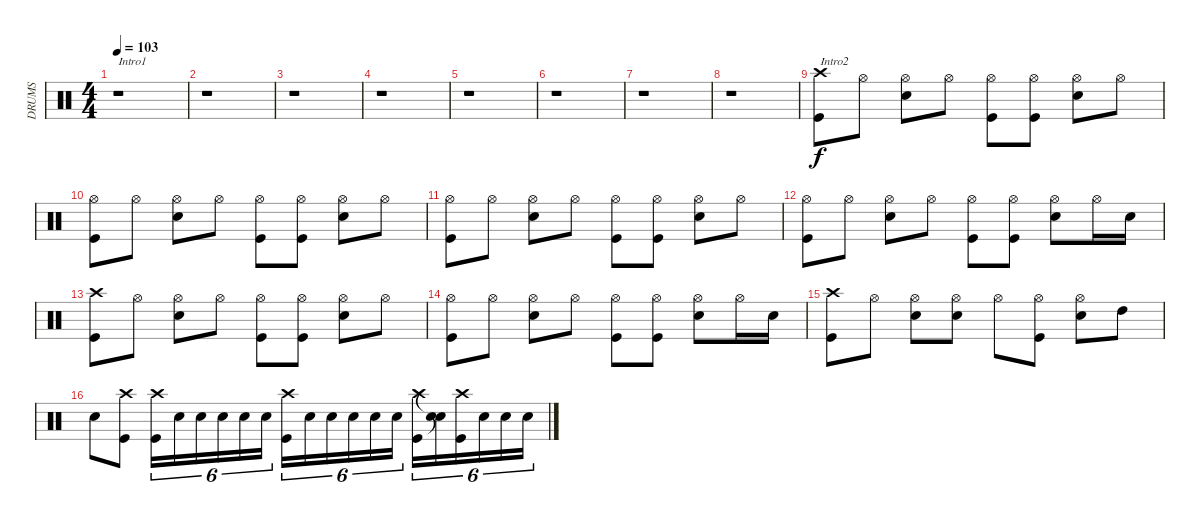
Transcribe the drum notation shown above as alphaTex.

\track ("DRUMS" "DRUMS") {instrument percussion}
\staff {score}
\articulation defaults
\ts (4 4)
\tempo 103
\clef neutral
\ks c
r.1{txt "Intro1" dy f} |
r.1 |
r.1 |
r.1 |
r.1 |
r.1 |
r.1 |
r.1 |
("Crash high (hit)" "Kick (hit)").8{txt "Intro2"} "Hi-Hat (open)".8 ("Hi-Hat (open)" "Electric Snare (hit)").8 "Hi-Hat (open)".8 ("Hi-Hat (open)" "Kick (hit)").8 ("Hi-Hat (open)" "Kick (hit)").8 ("Hi-Hat (open)" "Electric Snare (hit)").8 "Hi-Hat (open)".8 |
("Hi-Hat (open)" "Kick (hit)").8 "Hi-Hat (open)".8 ("Hi-Hat (open)" "Electric Snare (hit)").8 "Hi-Hat (open)".8 ("Hi-Hat (open)" "Kick (hit)").8 ("Hi-Hat (open)" "Kick (hit)").8 ("Hi-Hat (open)" "Electric Snare (hit)").8 "Hi-Hat (open)".8 |
("Hi-Hat (open)" "Kick (hit)").8 "Hi-Hat (open)".8 ("Hi-Hat (open)" "Electric Snare (hit)").8 "Hi-Hat (open)".8 ("Hi-Hat (open)" "Kick (hit)").8 ("Hi-Hat (open)" "Kick (hit)").8 ("Hi-Hat (open)" "Electric Snare (hit)").8 "Hi-Hat (open)".8 |
("Hi-Hat (open)" "Kick (hit)").8 "Hi-Hat (open)".8 ("Hi-Hat (open)" "Electric Snare (hit)").8 "Hi-Hat (open)".8 ("Hi-Hat (open)" "Kick (hit)").8 ("Hi-Hat (open)" "Kick (hit)").8 ("Hi-Hat (open)" "Electric Snare (hit)").8 "Hi-Hat (open)".16 "Electric Snare (hit)".16 |
("Crash high (hit)" "Kick (hit)").8 "Hi-Hat (open)".8 ("Hi-Hat (open)" "Electric Snare (hit)").8 "Hi-Hat (open)".8 ("Hi-Hat (open)" "Kick (hit)").8 ("Hi-Hat (open)" "Kick (hit)").8 ("Hi-Hat (open)" "Electric Snare (hit)").8 "Hi-Hat (open)".8 |
("Hi-Hat (open)" "Kick (hit)").8 "Hi-Hat (open)".8 ("Hi-Hat (open)" "Electric Snare (hit)").8 "Hi-Hat (open)".8 ("Hi-Hat (open)" "Kick (hit)").8 ("Hi-Hat (open)" "Kick (hit)").8 ("Hi-Hat (open)" "Electric Snare (hit)").8 "Hi-Hat (open)".16 "Electric Snare (hit)".16 |
("Crash high (hit)" "Kick (hit)").8 "Hi-Hat (open)".8 ("Hi-Hat (open)" "Electric Snare (hit)").8 ("Hi-Hat (open)" "Electric Snare (hit)").8 "Hi-Hat (open)".8 ("Hi-Hat (open)" "Kick (hit)").8 ("Hi-Hat (open)" "Electric Snare (hit)").8 "High Tom (hit)".8 |
"Electric Snare (hit)".8 ("Crash high (hit)" "Kick (hit)").8 ("Crash high (hit)" "Kick (hit)").16{tu (6 4)} "Electric Snare (hit)".16{tu (6 4)} "Electric Snare (hit)".16{tu (6 4)} "Electric Snare (hit)".16{tu (6 4)} "Electric Snare (hit)".16{tu (6 4)} "Electric Snare (hit)".16{tu (6 4)} ("Crash high (hit)" "Kick (hit)").16{tu (6 4)} "Electric Snare (hit)".16{tu (6 4)} "Electric Snare (hit)".16{tu (6 4)} "Electric Snare (hit)".16{tu (6 4)} "Electric Snare (hit)".16{tu (6 4)} "Electric Snare (hit)".16{tu (6 4)} ("Crash high (hit)" "Kick (hit)").16{tu (6 4)} ("Snare (hit)"{t} "Snare (hit)"{t}).16{tu (6 4)} ("Crash high (hit)" "Kick (hit)").16{tu (6 4)} "Electric Snare (hit)".16{tu (6 4)} "Electric Snare (hit)".16{tu (6 4)} "Electric Snare (hit)".16{tu (6 4)}
